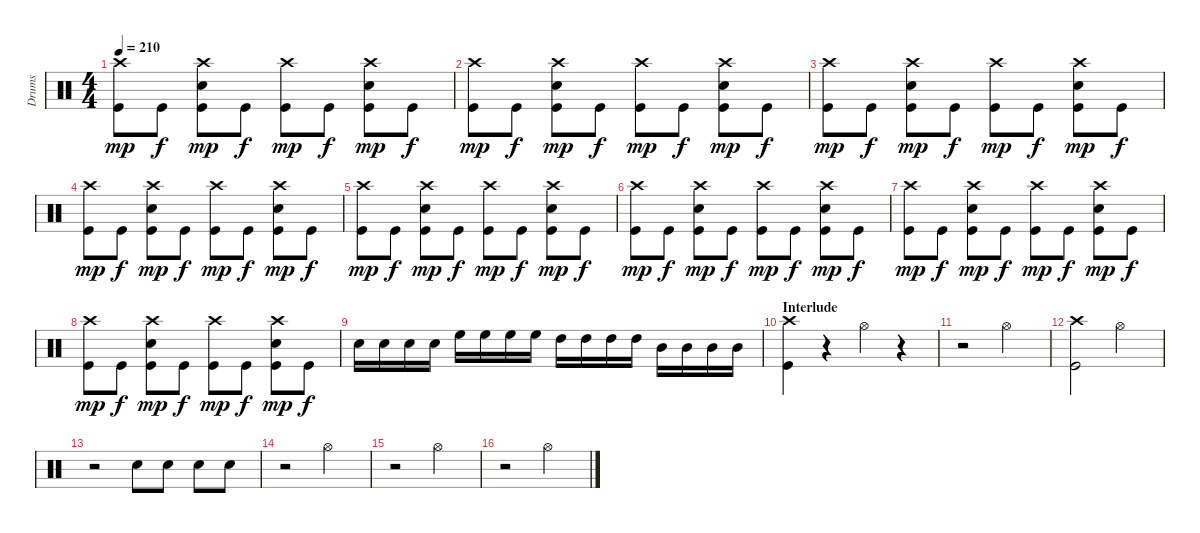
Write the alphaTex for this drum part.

\track ("Drums" "Drums") {instrument percussion}
\staff {score}
\articulation defaults
\ts (4 4)
\tempo 210
\clef neutral
\ks c
("Crash high (hit)" "Kick (hit)").8{dy mp} "Kick (hit)".8{dy f} ("Crash high (hit)" "Electric Snare (hit)" "Kick (hit)").8{dy mp} "Kick (hit)".8{dy f} ("Crash high (hit)" "Kick (hit)").8{dy mp} "Kick (hit)".8{dy f} ("Crash high (hit)" "Electric Snare (hit)" "Kick (hit)").8{dy mp} "Kick (hit)".8{dy f} |
("Crash high (hit)" "Kick (hit)").8{dy mp} "Kick (hit)".8{dy f} ("Crash high (hit)" "Electric Snare (hit)" "Kick (hit)").8{dy mp} "Kick (hit)".8{dy f} ("Crash high (hit)" "Kick (hit)").8{dy mp} "Kick (hit)".8{dy f} ("Crash high (hit)" "Electric Snare (hit)" "Kick (hit)").8{dy mp} "Kick (hit)".8{dy f} |
("Crash high (hit)" "Kick (hit)").8{dy mp} "Kick (hit)".8{dy f} ("Crash high (hit)" "Electric Snare (hit)" "Kick (hit)").8{dy mp} "Kick (hit)".8{dy f} ("Crash high (hit)" "Kick (hit)").8{dy mp} "Kick (hit)".8{dy f} ("Crash high (hit)" "Electric Snare (hit)" "Kick (hit)").8{dy mp} "Kick (hit)".8{dy f} |
("Crash high (hit)" "Kick (hit)").8{dy mp} "Kick (hit)".8{dy f} ("Crash high (hit)" "Electric Snare (hit)" "Kick (hit)").8{dy mp} "Kick (hit)".8{dy f} ("Crash high (hit)" "Kick (hit)").8{dy mp} "Kick (hit)".8{dy f} ("Crash high (hit)" "Electric Snare (hit)" "Kick (hit)").8{dy mp} "Kick (hit)".8{dy f} |
("Crash high (hit)" "Kick (hit)").8{dy mp} "Kick (hit)".8{dy f} ("Crash high (hit)" "Electric Snare (hit)" "Kick (hit)").8{dy mp} "Kick (hit)".8{dy f} ("Crash high (hit)" "Kick (hit)").8{dy mp} "Kick (hit)".8{dy f} ("Crash high (hit)" "Electric Snare (hit)" "Kick (hit)").8{dy mp} "Kick (hit)".8{dy f} |
("Crash high (hit)" "Kick (hit)").8{dy mp} "Kick (hit)".8{dy f} ("Crash high (hit)" "Electric Snare (hit)" "Kick (hit)").8{dy mp} "Kick (hit)".8{dy f} ("Crash high (hit)" "Kick (hit)").8{dy mp} "Kick (hit)".8{dy f} ("Crash high (hit)" "Electric Snare (hit)" "Kick (hit)").8{dy mp} "Kick (hit)".8{dy f} |
("Crash high (hit)" "Kick (hit)").8{dy mp} "Kick (hit)".8{dy f} ("Crash high (hit)" "Electric Snare (hit)" "Kick (hit)").8{dy mp} "Kick (hit)".8{dy f} ("Crash high (hit)" "Kick (hit)").8{dy mp} "Kick (hit)".8{dy f} ("Crash high (hit)" "Electric Snare (hit)" "Kick (hit)").8{dy mp} "Kick (hit)".8{dy f} |
("Crash high (hit)" "Kick (hit)").8{dy mp} "Kick (hit)".8{dy f} ("Crash high (hit)" "Electric Snare (hit)" "Kick (hit)").8{dy mp} "Kick (hit)".8{dy f} ("Crash high (hit)" "Kick (hit)").8{dy mp} "Kick (hit)".8{dy f} ("Crash high (hit)" "Electric Snare (hit)" "Kick (hit)").8{dy mp} "Kick (hit)".8{dy f} |
"Electric Snare (hit)".16 "Electric Snare (hit)".16 "Electric Snare (hit)".16 "Electric Snare (hit)".16 "High Floor Tom (hit)".16 "High Floor Tom (hit)".16 "High Floor Tom (hit)".16 "High Floor Tom (hit)".16 "High Tom (hit)".16 "High Tom (hit)".16 "High Tom (hit)".16 "High Tom (hit)".16 "Mid Tom (hit)".16 "Mid Tom (hit)".16 "Mid Tom (hit)".16 "Mid Tom (hit)".16 |
\section ("" "Interlude")
("Crash high (hit)" "Kick (hit)").4 r.4 "Hi-Hat (open)".4 r.4 |
r.2 "Hi-Hat (open)".2 |
("Crash high (hit)" "Kick (hit)").2 "Hi-Hat (open)".2 |
r.2 "Electric Snare (hit)".8 "Electric Snare (hit)".8 "Electric Snare (hit)".8 "Electric Snare (hit)".8 |
r.2 "Hi-Hat (open)".2 |
r.2 "Hi-Hat (open)".2 |
r.2 "Hi-Hat (open)".2
